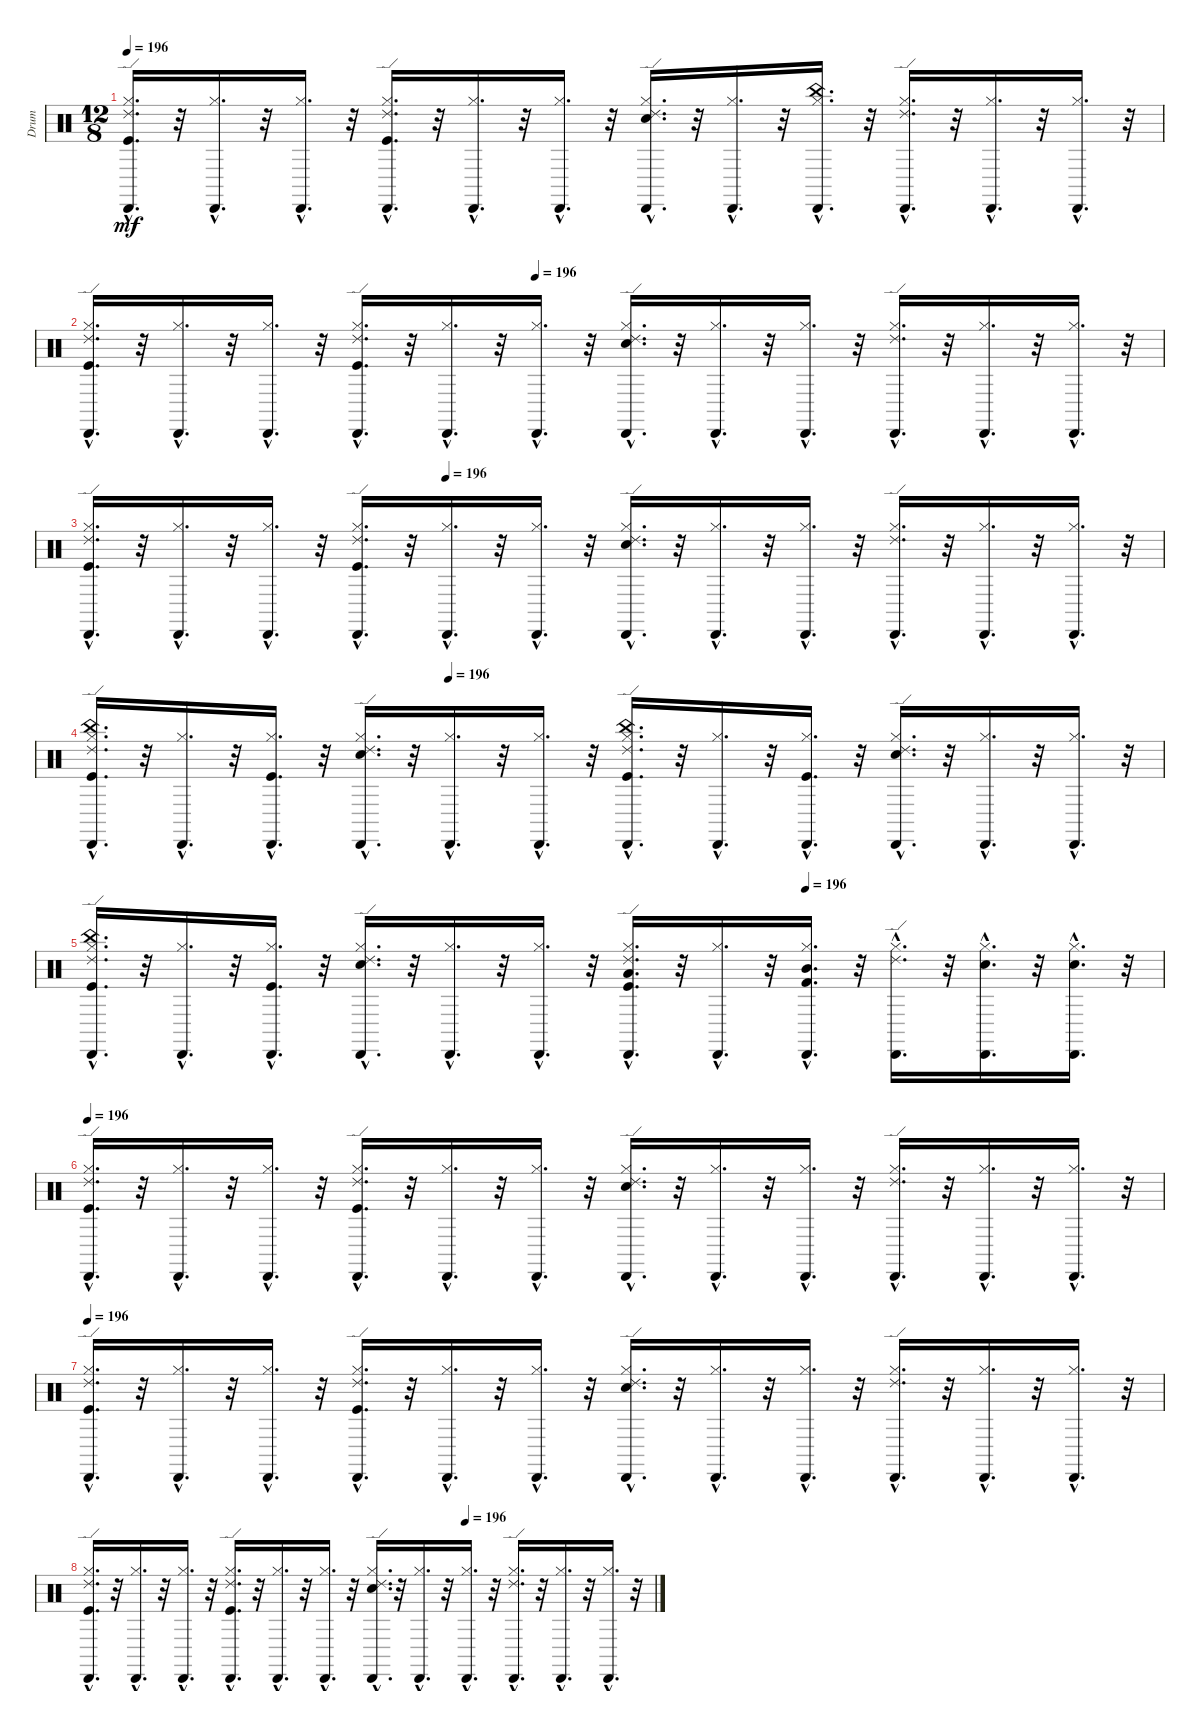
\track ("Drum" "Drum") {instrument percussion}
\staff {score}
\articulation defaults
\ts (12 8)
\tempo 196
\clef neutral
\ks c
("Hi-Hat (closed)"{hac} "Kick (hit)"{hac} "Cabasa (hit)"{hac} "Ride (edge) 2"{hac}).16{d dy mf} r.32 ("Hi-Hat (closed)"{hac} "Cabasa (hit)"{hac}).16{d} r.32 ("Hi-Hat (closed)"{hac} "Cabasa (hit)"{hac}).16{d} r.32 ("Hi-Hat (closed)"{hac} "Cabasa (hit)"{hac} "Kick (hit)"{hac} "Ride (edge) 2"{hac}).16{d} r.32 ("Hi-Hat (closed)"{hac} "Cabasa (hit)"{hac}).16{d} r.32 ("Hi-Hat (closed)"{hac} "Cabasa (hit)"{hac}).16{d} r.32 ("Hi-Hat (closed)"{hac} "Cabasa (hit)"{hac} "Ride (edge) 2"{hac} "Snare (hit) 2"{hac}).16{d} r.32 ("Hi-Hat (closed)"{hac} "Cabasa (hit)"{hac}).16{d} r.32 ("China (hit)"{hac} "Hi-Hat (closed)"{hac} "Cabasa (hit)"{hac}).16{d} r.32 ("Ride (edge) 2"{hac} "Cabasa (hit)"{hac} "Hi-Hat (closed)"{hac}).16{d} r.32 ("Hi-Hat (closed)"{hac} "Cabasa (hit)"{hac}).16{d} r.32 ("Cabasa (hit)"{hac} "Hi-Hat (closed)"{hac}).16{d} r.32 |
\tempo (196 0.4166666666666667)
("Ride (edge) 2"{hac} "Cabasa (hit)"{hac} "Kick (hit)"{hac} "Hi-Hat (closed)"{hac}).16{d} r.32 ("Cabasa (hit)"{hac} "Hi-Hat (closed)"{hac}).16{d} r.32 ("Cabasa (hit)"{hac} "Hi-Hat (closed)"{hac}).16{d} r.32 ("Ride (edge) 2"{hac} "Cabasa (hit)"{hac} "Kick (hit)"{hac} "Hi-Hat (closed)"{hac}).16{d} r.32 ("Cabasa (hit)"{hac} "Hi-Hat (closed)"{hac}).16{d} r.32 ("Cabasa (hit)"{hac} "Hi-Hat (closed)"{hac}).16{d} r.32 ("Ride (edge) 2"{hac} "Cabasa (hit)"{hac} "Snare (hit) 2"{hac} "Hi-Hat (closed)"{hac}).16{d} r.32 ("Cabasa (hit)"{hac} "Hi-Hat (closed)"{hac}).16{d} r.32 ("Cabasa (hit)"{hac} "Hi-Hat (closed)"{hac}).16{d} r.32 ("Ride (edge) 2"{hac} "Cabasa (hit)"{hac} "Hi-Hat (closed)"{hac}).16{d} r.32 ("Cabasa (hit)"{hac} "Hi-Hat (closed)"{hac}).16{d} r.32 ("Cabasa (hit)"{hac} "Hi-Hat (closed)"{hac}).16{d} r.32 |
\tempo (196 0.3333333333333333)
("Hi-Hat (closed)"{hac} "Kick (hit)"{hac} "Cabasa (hit)"{hac} "Ride (edge) 2"{hac}).16{d} r.32 ("Hi-Hat (closed)"{hac} "Cabasa (hit)"{hac}).16{d} r.32 ("Hi-Hat (closed)"{hac} "Cabasa (hit)"{hac}).16{d} r.32 ("Hi-Hat (closed)"{hac} "Kick (hit)"{hac} "Cabasa (hit)"{hac} "Ride (edge) 2"{hac}).16{d} r.32 ("Hi-Hat (closed)"{hac} "Cabasa (hit)"{hac}).16{d} r.32 ("Hi-Hat (closed)"{hac} "Cabasa (hit)"{hac}).16{d} r.32 ("Hi-Hat (closed)"{hac} "Snare (hit) 2"{hac} "Cabasa (hit)"{hac} "Ride (edge) 2"{hac}).16{d} r.32 ("Hi-Hat (closed)"{hac} "Cabasa (hit)"{hac}).16{d} r.32 ("Hi-Hat (closed)"{hac} "Cabasa (hit)"{hac}).16{d} r.32 ("Hi-Hat (closed)"{hac} "Cabasa (hit)"{hac} "Ride (edge) 2"{hac}).16{d} r.32 ("Hi-Hat (closed)"{hac} "Cabasa (hit)"{hac}).16{d} r.32 ("Hi-Hat (closed)"{hac} "Cabasa (hit)"{hac}).16{d} r.32 |
\tempo (196 0.3333333333333333)
("Ride (edge) 2"{hac} "Cabasa (hit)"{hac} "China (hit)"{hac} "Kick (hit)"{hac} "Hi-Hat (closed)"{hac}).16{d} r.32 ("Hi-Hat (closed)"{hac} "Cabasa (hit)"{hac}).16{d} r.32 ("Kick (hit)"{hac} "Hi-Hat (closed)"{hac} "Cabasa (hit)"{hac}).16{d} r.32 ("Snare (hit) 2"{hac} "Ride (edge) 2"{hac} "Hi-Hat (closed)"{hac} "Cabasa (hit)"{hac}).16{d} r.32 ("Hi-Hat (closed)"{hac} "Cabasa (hit)"{hac}).16{d} r.32 ("Cabasa (hit)"{hac} "Hi-Hat (closed)"{hac}).16{d} r.32 ("Kick (hit)"{hac} "China (hit)"{hac} "Ride (edge) 2"{hac} "Hi-Hat (closed)"{hac} "Cabasa (hit)"{hac}).16{d} r.32 ("Cabasa (hit)"{hac} "Hi-Hat (closed)"{hac}).16{d} r.32 ("Kick (hit)"{hac} "Cabasa (hit)"{hac} "Hi-Hat (closed)"{hac}).16{d} r.32 ("Snare (hit) 2"{hac} "Hi-Hat (closed)"{hac} "Ride (edge) 2"{hac} "Cabasa (hit)"{hac}).16{d} r.32 ("Cabasa (hit)"{hac} "Hi-Hat (closed)"{hac}).16{d} r.32 ("Hi-Hat (closed)"{hac} "Cabasa (hit)"{hac}).16{d} r.32 |
\tempo (196 0.6666666666666666)
("Ride (edge) 2"{hac} "Cabasa (hit)"{hac} "Kick (hit)"{hac} "Hi-Hat (closed)"{hac} "China (hit)"{hac}).16{d} r.32 ("Hi-Hat (closed)"{hac} "Cabasa (hit)"{hac}).16{d} r.32 ("Kick (hit)"{hac} "Cabasa (hit)"{hac} "Hi-Hat (closed)"{hac}).16{d} r.32 ("Snare (hit) 2"{hac} "Cabasa (hit)"{hac} "Ride (edge) 2"{hac} "Hi-Hat (closed)"{hac}).16{d} r.32 ("Hi-Hat (closed)"{hac} "Cabasa (hit)"{hac}).16{d} r.32 ("Cabasa (hit)"{hac} "Hi-Hat (closed)"{hac}).16{d} r.32 ("Low Tom (hit)"{hac} "Ride (edge) 2"{hac} "Hi-Hat (closed)"{hac} "Kick (hit)"{hac} "Cabasa (hit)"{hac}).16{d} r.32 ("Cabasa (hit)"{hac} "Hi-Hat (closed)"{hac}).16{d} r.32 ("Cabasa (hit)"{hac} "Mid Tom (hit)"{hac} "Kick (hit) 2"{hac} "Hi-Hat (closed)"{hac}).16{d} r.32 ("Ride (edge) 2"{hac} "Hi-Hat (closed)"{hac} "Cabasa (hit)"{hac}).16{d} r.32 ("Cabasa (hit)"{hac} "Snare (hit) 2"{hac} "Hi-Hat (closed)"{hac}).16{d} r.32 ("Cabasa (hit)"{hac} "Hi-Hat (closed)"{hac} "Snare (hit) 2"{hac}).16{d} r.32 |
\tempo 196
("Cabasa (hit)"{hac} "Ride (edge) 2"{hac} "Kick (hit)"{hac} "Hi-Hat (closed)"{hac}).16{d} r.32 ("Cabasa (hit)"{hac} "Hi-Hat (closed)"{hac}).16{d} r.32 ("Cabasa (hit)"{hac} "Hi-Hat (closed)"{hac}).16{d} r.32 ("Ride (edge) 2"{hac} "Cabasa (hit)"{hac} "Kick (hit)"{hac} "Hi-Hat (closed)"{hac}).16{d} r.32 ("Cabasa (hit)"{hac} "Hi-Hat (closed)"{hac}).16{d} r.32 ("Cabasa (hit)"{hac} "Hi-Hat (closed)"{hac}).16{d} r.32 ("Ride (edge) 2"{hac} "Cabasa (hit)"{hac} "Snare (hit) 2"{hac} "Hi-Hat (closed)"{hac}).16{d} r.32 ("Hi-Hat (closed)"{hac} "Cabasa (hit)"{hac}).16{d} r.32 ("Cabasa (hit)"{hac} "Hi-Hat (closed)"{hac}).16{d} r.32 ("Hi-Hat (closed)"{hac} "Ride (edge) 2"{hac} "Cabasa (hit)"{hac}).16{d} r.32 ("Hi-Hat (closed)"{hac} "Cabasa (hit)"{hac}).16{d} r.32 ("Cabasa (hit)"{hac} "Hi-Hat (closed)"{hac}).16{d} r.32 |
\tempo 196
("Ride (edge) 2"{hac} "Cabasa (hit)"{hac} "Hi-Hat (closed)"{hac} "Kick (hit)"{hac}).16{d} r.32 ("Hi-Hat (closed)"{hac} "Cabasa (hit)"{hac}).16{d} r.32 ("Hi-Hat (closed)"{hac} "Cabasa (hit)"{hac}).16{d} r.32 ("Cabasa (hit)"{hac} "Kick (hit)"{hac} "Hi-Hat (closed)"{hac} "Ride (edge) 2"{hac}).16{d} r.32 ("Hi-Hat (closed)"{hac} "Cabasa (hit)"{hac}).16{d} r.32 ("Hi-Hat (closed)"{hac} "Cabasa (hit)"{hac}).16{d} r.32 ("Hi-Hat (closed)"{hac} "Cabasa (hit)"{hac} "Ride (edge) 2"{hac} "Snare (hit) 2"{hac}).16{d} r.32 ("Hi-Hat (closed)"{hac} "Cabasa (hit)"{hac}).16{d} r.32 ("Hi-Hat (closed)"{hac} "Cabasa (hit)"{hac}).16{d} r.32 ("Cabasa (hit)"{hac} "Hi-Hat (closed)"{hac} "Ride (edge) 2"{hac}).16{d} r.32 ("Hi-Hat (closed)"{hac} "Cabasa (hit)"{hac}).16{d} r.32 ("Cabasa (hit)"{hac} "Hi-Hat (closed)"{hac}).16{d} r.32 |
\tempo (196 0.6666666666666666)
("Hi-Hat (closed)"{hac} "Cabasa (hit)"{hac} "Ride (edge) 2"{hac} "Kick (hit)"{hac}).16{d} r.32 ("Cabasa (hit)"{hac} "Hi-Hat (closed)"{hac}).16{d} r.32 ("Cabasa (hit)"{hac} "Hi-Hat (closed)"{hac}).16{d} r.32 ("Kick (hit)"{hac} "Cabasa (hit)"{hac} "Hi-Hat (closed)"{hac} "Ride (edge) 2"{hac}).16{d} r.32 ("Cabasa (hit)"{hac} "Hi-Hat (closed)"{hac}).16{d} r.32 ("Hi-Hat (closed)"{hac} "Cabasa (hit)"{hac}).16{d} r.32 ("Snare (hit) 2"{hac} "Hi-Hat (closed)"{hac} "Cabasa (hit)"{hac} "Ride (edge) 2"{hac}).16{d} r.32 ("Hi-Hat (closed)"{hac} "Cabasa (hit)"{hac}).16{d} r.32 ("Cabasa (hit)"{hac} "Hi-Hat (closed)"{hac}).16{d} r.32 ("Cabasa (hit)"{hac} "Hi-Hat (closed)"{hac} "Ride (edge) 2"{hac}).16{d} r.32 ("Cabasa (hit)"{hac} "Hi-Hat (closed)"{hac}).16{d} r.32 ("Cabasa (hit)"{hac} "Hi-Hat (closed)"{hac}).16{d} r.32
